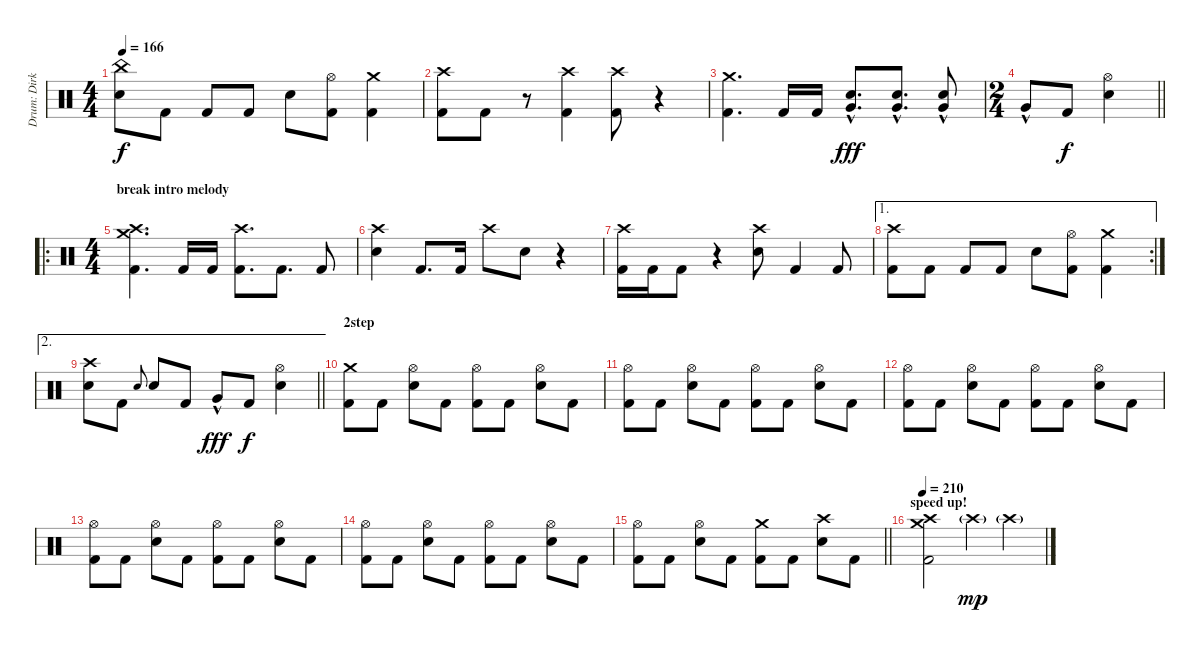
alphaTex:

\track ("Drum: Dirk" "Drum: Dirk") {instrument percussion}
\staff {score}
\articulation defaults
\ts (4 4)
\tempo 166
\clef neutral
\ks c
("China (hit)" "Electric Snare (hit)").8{dy f} "Kick (hit) 2".8 "Kick (hit) 2".8 "Kick (hit) 2".8 "Electric Snare (hit)".8 ("Hi-Hat (open)" "Kick (hit) 2").8 ("Crash medium (hit)" "Kick (hit) 2").4 |
("Crash high (hit)" "Kick (hit) 2").8 "Kick (hit) 2".8 r.8 ("Crash high (hit)" "Kick (hit) 2").4 ("Crash high (hit)" "Kick (hit) 2").8 r.4{volume 0} |
("Crash medium (hit)" "Kick (hit) 2").4{d volume 14} "Kick (hit) 2".16 "Kick (hit) 2".16 ("Electric Snare (hit)" "Very Low Tom (hit)"{hac}).8{d dy fff} ("Electric Snare (hit)" "Very Low Tom (hit)"{hac}).8{d} ("Electric Snare (hit)" "Very Low Tom (hit)"{hac}).8 |
\ts (2 4)
\barLineRight lightlight "Very Low Tom (hit)"{hac}.8 "Kick (hit) 2".8{dy f}
("Hi-Hat (open)" "Electric Snare (hit)").4 |
\ro
\ts (4 4)
\section ("" "break intro melody")
("Crash high (hit)" "Crash medium (hit)" "Kick (hit) 2").4{d} "Kick (hit) 2".16 "Kick (hit) 2".16 ("Crash high (hit)" "Kick (hit) 2").8{d} "Kick (hit) 2".8{d} "Kick (hit) 2".8 |
("Crash high (hit)" "Electric Snare (hit)").4 "Kick (hit) 2".8{d} "Kick (hit) 2".16 "Crash high (hit)".8 "Electric Snare (hit)".8 r.4 |
("Crash high (hit)" "Kick (hit) 2").16 "Kick (hit) 2".16 "Kick (hit) 2".8 r.4 ("Crash high (hit)" "Electric Snare (hit)").8 "Kick (hit) 2".4 "Kick (hit) 2".8 |
\ae 1
\rc 2
("Crash high (hit)" "Kick (hit) 2").8 "Kick (hit) 2".8 "Kick (hit) 2".8 "Kick (hit) 2".8 "Electric Snare (hit)".8 ("Hi-Hat (open)" "Kick (hit) 2").8 ("Crash medium (hit)" "Kick (hit) 2").4 |
\ae 2
\barLineRight lightlight
("Crash high (hit)" "Electric Snare (hit)").8 "Kick (hit) 2".8 "Electric Snare (hit)".8{gr onbeat} "Electric Snare (hit)".8 "Kick (hit) 2".8 "Very Low Tom (hit)"{hac}.8{dy fff} "Kick (hit) 2".8{dy f} ("Hi-Hat (open)" "Electric Snare (hit)").4 |
\section ("" "2step")
("Crash medium (hit)" "Kick (hit) 2").8 "Kick (hit) 2".8 ("Hi-Hat (open)" "Electric Snare (hit)").8 "Kick (hit) 2".8 ("Hi-Hat (open)" "Kick (hit) 2").8 "Kick (hit) 2".8 ("Hi-Hat (open)" "Electric Snare (hit)").8 "Kick (hit) 2".8 |
("Hi-Hat (open)" "Kick (hit) 2").8 "Kick (hit) 2".8 ("Hi-Hat (open)" "Electric Snare (hit)").8 "Kick (hit) 2".8 ("Hi-Hat (open)" "Kick (hit) 2").8 "Kick (hit) 2".8 ("Hi-Hat (open)" "Electric Snare (hit)").8 "Kick (hit) 2".8 |
("Hi-Hat (open)" "Kick (hit) 2").8 "Kick (hit) 2".8 ("Hi-Hat (open)" "Electric Snare (hit)").8 "Kick (hit) 2".8 ("Hi-Hat (open)" "Kick (hit) 2").8 "Kick (hit) 2".8 ("Hi-Hat (open)" "Electric Snare (hit)").8 "Kick (hit) 2".8 |
("Hi-Hat (open)" "Kick (hit) 2").8 "Kick (hit) 2".8 ("Hi-Hat (open)" "Electric Snare (hit)").8 "Kick (hit) 2".8 ("Hi-Hat (open)" "Kick (hit) 2").8 "Kick (hit) 2".8 ("Hi-Hat (open)" "Electric Snare (hit)").8 "Kick (hit) 2".8 |
("Hi-Hat (open)" "Kick (hit) 2").8 "Kick (hit) 2".8 ("Hi-Hat (open)" "Electric Snare (hit)").8 "Kick (hit) 2".8 ("Hi-Hat (open)" "Kick (hit) 2").8 "Kick (hit) 2".8 ("Hi-Hat (open)" "Electric Snare (hit)").8 "Kick (hit) 2".8 |
\barLineRight lightlight
("Hi-Hat (open)" "Kick (hit) 2").8 "Kick (hit) 2".8 ("Hi-Hat (open)" "Electric Snare (hit)").8 "Kick (hit) 2".8 ("Crash medium (hit)" "Kick (hit) 2").8 "Kick (hit) 2".8 ("Crash high (hit)" "Electric Snare (hit)").8 "Kick (hit) 2".8 |
\section ("" "speed up!")
\tempo 210
("Crash high (hit)" "Crash medium (hit)" "Kick (hit) 2").2 "Crash high (hit)"{g}.4{dy mp} "Crash high (hit)"{g}.4
